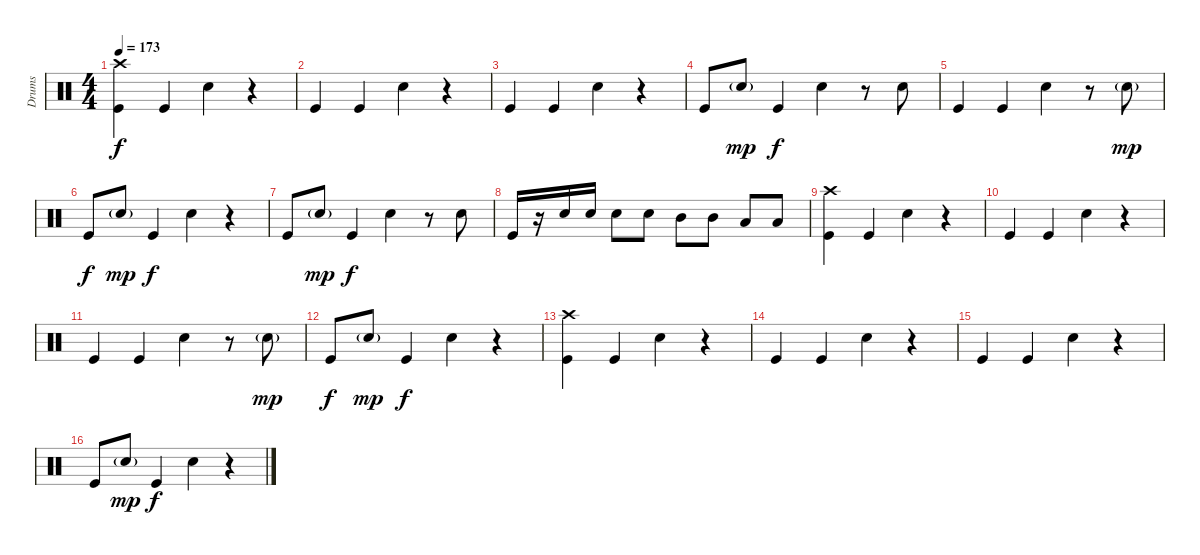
\track ("Drums" "Drums") {instrument percussion}
\staff {score}
\articulation defaults
\ts (4 4)
\tempo 173
\clef neutral
\ks c
("Crash high (hit)" "Kick (hit)").4{dy f} "Kick (hit)".4 "Snare (hit) 2".4 r.4 |
"Kick (hit)".4 "Kick (hit)".4 "Snare (hit) 2".4 r.4 |
"Kick (hit)".4 "Kick (hit)".4 "Snare (hit) 2".4 r.4 |
"Kick (hit)".8 "Snare (hit) 2"{g}.8{dy mp} "Kick (hit)".4{dy f} "Snare (hit) 2".4 r.8 "Snare (hit) 2".8 |
"Kick (hit)".4 "Kick (hit)".4 "Snare (hit) 2".4 r.8 "Snare (hit) 2"{g}.8{dy mp} |
"Kick (hit)".8{dy f} "Snare (hit) 2"{g}.8{dy mp} "Kick (hit)".4{dy f} "Snare (hit) 2".4 r.4 |
"Kick (hit)".8 "Snare (hit) 2"{g}.8{dy mp} "Kick (hit)".4{dy f} "Snare (hit) 2".4 r.8 "Snare (hit) 2".8 |
"Kick (hit)".16 r.16 "Snare (hit) 2".16 "Snare (hit) 2".16 "Snare (hit) 2".8 "Snare (hit) 2".8 "Mid Tom (hit)".8 "Mid Tom (hit)".8 "Low Tom (hit)".8 "Low Tom (hit)".8 |
("Crash high (hit)" "Kick (hit)").4 "Kick (hit)".4 "Snare (hit) 2".4 r.4 |
"Kick (hit)".4 "Kick (hit)".4 "Snare (hit) 2".4 r.4 |
"Kick (hit)".4 "Kick (hit)".4 "Snare (hit) 2".4 r.8 "Snare (hit) 2"{g}.8{dy mp} |
"Kick (hit)".8{dy f} "Snare (hit) 2"{g}.8{dy mp} "Kick (hit)".4{dy f} "Snare (hit) 2".4 r.4 |
("Crash high (hit)" "Kick (hit)").4 "Kick (hit)".4 "Snare (hit) 2".4 r.4 |
"Kick (hit)".4 "Kick (hit)".4 "Snare (hit) 2".4 r.4 |
"Kick (hit)".4 "Kick (hit)".4 "Snare (hit) 2".4 r.4 |
"Kick (hit)".8 "Snare (hit) 2"{g}.8{dy mp} "Kick (hit)".4{dy f} "Snare (hit) 2".4 r.4
